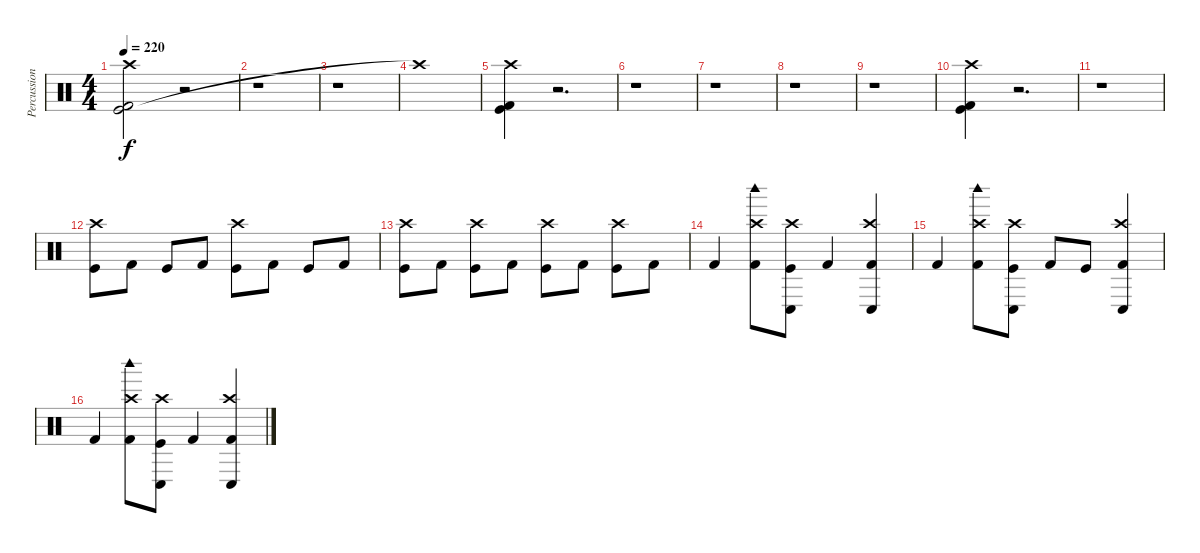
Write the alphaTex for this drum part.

\track ("Percussions" "Percussion") {instrument percussion}
\staff {score}
\articulation defaults
\ts (4 4)
\tempo 220
\clef neutral
\ks c
("Kick (hit)" "Kick (hit) 2" "Crash high (hit)").2{dy f} r.2 |
r.1 |
r.1 |
"Crash high (hit)"{t}.1 |
("Kick (hit)" "Kick (hit) 2" "Crash high (hit)").4 r.2{d} |
r.1 |
r.1 |
r.1 |
r.1 |
("Kick (hit)" "Kick (hit) 2" "Crash high (hit)").4 r.2{d} |
r.1 |
("Kick (hit)" "Crash high (hit)").8 "Kick (hit) 2".8 "Kick (hit)".8 "Kick (hit) 2".8 ("Kick (hit)" "Crash high (hit)").8 "Kick (hit) 2".8 "Kick (hit)".8 "Kick (hit) 2".8 |
("Kick (hit)" "Crash high (hit)").8 "Kick (hit) 2".8 ("Kick (hit)" "Crash high (hit)").8 "Kick (hit) 2".8 ("Kick (hit)" "Crash high (hit)").8 "Kick (hit) 2".8 ("Kick (hit)" "Crash high (hit)").8 "Kick (hit) 2".8 |
"Kick (hit) 2".4 ("Kick (hit) 2" "Crash high (hit)" "Woodblock high (hit)").8 ("Kick (hit)" "Crash high (hit)" "Conga low (hit)").8 "Kick (hit) 2".4 ("Kick (hit) 2" "Crash high (hit)" "Conga low (hit)").4 |
"Kick (hit) 2".4 ("Kick (hit) 2" "Crash high (hit)" "Woodblock high (hit)").8 ("Kick (hit)" "Crash high (hit)" "Conga low (hit)").8 "Kick (hit) 2".8 "Kick (hit)".8 ("Kick (hit) 2" "Crash high (hit)" "Conga low (hit)").4 |
"Kick (hit) 2".4 ("Kick (hit) 2" "Crash high (hit)" "Woodblock high (hit)").8 ("Kick (hit)" "Crash high (hit)" "Conga low (hit)").8 "Kick (hit) 2".4 ("Kick (hit) 2" "Crash high (hit)" "Conga low (hit)").4
